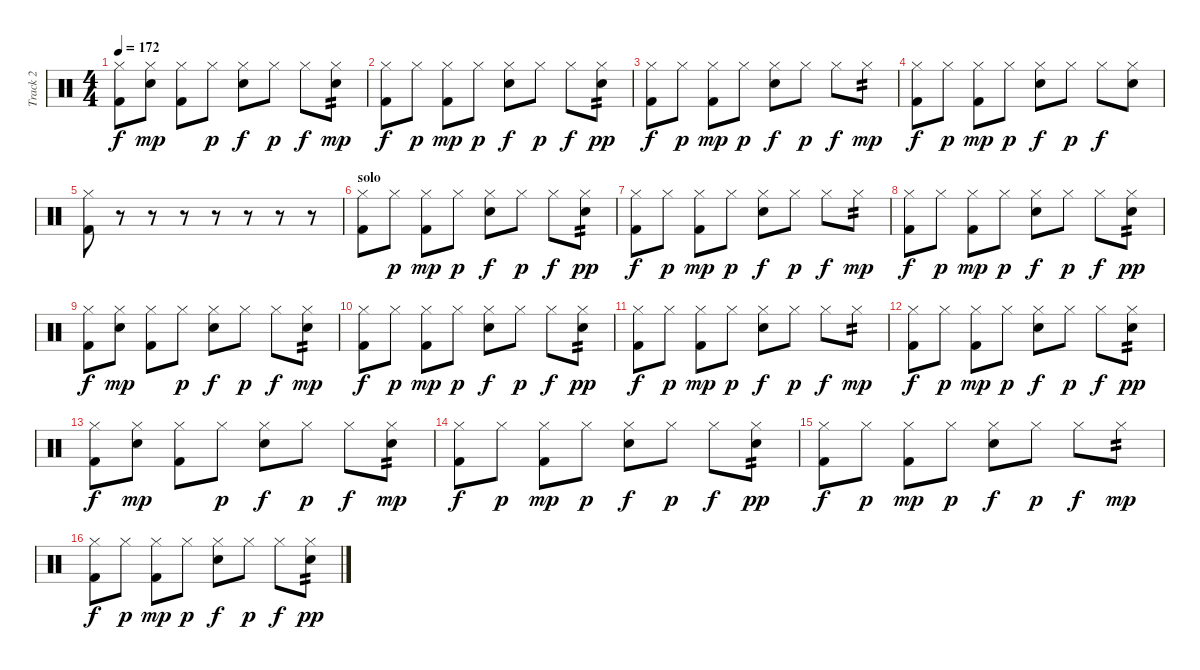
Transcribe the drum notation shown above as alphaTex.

\track ("Track 2" "Track 2") {instrument percussion}
\staff {score}
\articulation defaults
\ts (4 4)
\tempo 172
\clef neutral
\ks c
("Hi-Hat (closed)" "Kick (hit) 2").8{dy f} ("Hi-Hat (closed)" "Snare (hit) 2").8{dy mp} ("Hi-Hat (closed)" "Kick (hit) 2").8 "Hi-Hat (closed)".8{dy p} ("Hi-Hat (closed)" "Snare (hit) 2").8{dy f} "Hi-Hat (closed)".8{dy p} "Hi-Hat (closed)".8{dy f} ("Hi-Hat (closed)" "Snare (hit) 2").8{tp 2 dy mp} |
("Hi-Hat (closed)" "Kick (hit) 2").8{dy f} "Hi-Hat (closed)".8{dy p} ("Hi-Hat (closed)" "Kick (hit) 2").8{dy mp} "Hi-Hat (closed)".8{dy p} ("Hi-Hat (closed)" "Snare (hit) 2").8{dy f} "Hi-Hat (closed)".8{dy p} "Hi-Hat (closed)".8{dy f} ("Hi-Hat (closed)" "Snare (hit) 2").8{tp 2 dy pp} |
("Hi-Hat (closed)" "Kick (hit) 2").8{dy f} "Hi-Hat (closed)".8{dy p} ("Hi-Hat (closed)" "Kick (hit) 2").8{dy mp} "Hi-Hat (closed)".8{dy p} ("Hi-Hat (closed)" "Snare (hit) 2").8{dy f} "Hi-Hat (closed)".8{dy p} "Hi-Hat (closed)".8{dy f} "Hi-Hat (closed)".8{tp 2 dy mp} |
("Hi-Hat (closed)" "Kick (hit) 2").8{dy f} "Hi-Hat (closed)".8{dy p} ("Hi-Hat (closed)" "Kick (hit) 2").8{dy mp} "Hi-Hat (closed)".8{dy p} ("Hi-Hat (closed)" "Snare (hit) 2").8{dy f} "Hi-Hat (closed)".8{dy p} "Hi-Hat (closed)".8{dy f} ("Hi-Hat (closed)" "Snare (hit) 2").8 |
("Hi-Hat (closed)" "Kick (hit) 2").8 r.8 r.8 r.8 r.8 r.8 r.8 r.8 |
\section ("" "solo")
("Hi-Hat (closed)" "Kick (hit) 2").8 "Hi-Hat (closed)".8{dy p} ("Hi-Hat (closed)" "Kick (hit) 2").8{dy mp} "Hi-Hat (closed)".8{dy p} ("Hi-Hat (closed)" "Snare (hit) 2").8{dy f} "Hi-Hat (closed)".8{dy p} "Hi-Hat (closed)".8{dy f} ("Hi-Hat (closed)" "Snare (hit) 2").8{tp 2 dy pp} |
("Hi-Hat (closed)" "Kick (hit) 2").8{dy f} "Hi-Hat (closed)".8{dy p} ("Hi-Hat (closed)" "Kick (hit) 2").8{dy mp} "Hi-Hat (closed)".8{dy p} ("Hi-Hat (closed)" "Snare (hit) 2").8{dy f} "Hi-Hat (closed)".8{dy p} "Hi-Hat (closed)".8{dy f} "Hi-Hat (closed)".8{tp 2 dy mp} |
("Hi-Hat (closed)" "Kick (hit) 2").8{dy f} "Hi-Hat (closed)".8{dy p} ("Hi-Hat (closed)" "Kick (hit) 2").8{dy mp} "Hi-Hat (closed)".8{dy p} ("Hi-Hat (closed)" "Snare (hit) 2").8{dy f} "Hi-Hat (closed)".8{dy p} "Hi-Hat (closed)".8{dy f} ("Hi-Hat (closed)" "Snare (hit) 2").8{tp 2 dy pp} |
("Hi-Hat (closed)" "Kick (hit) 2").8{dy f} ("Hi-Hat (closed)" "Snare (hit) 2").8{dy mp} ("Hi-Hat (closed)" "Kick (hit) 2").8 "Hi-Hat (closed)".8{dy p} ("Hi-Hat (closed)" "Snare (hit) 2").8{dy f} "Hi-Hat (closed)".8{dy p} "Hi-Hat (closed)".8{dy f} ("Hi-Hat (closed)" "Snare (hit) 2").8{tp 2 dy mp} |
("Hi-Hat (closed)" "Kick (hit) 2").8{dy f} "Hi-Hat (closed)".8{dy p} ("Hi-Hat (closed)" "Kick (hit) 2").8{dy mp} "Hi-Hat (closed)".8{dy p} ("Hi-Hat (closed)" "Snare (hit) 2").8{dy f} "Hi-Hat (closed)".8{dy p} "Hi-Hat (closed)".8{dy f} ("Hi-Hat (closed)" "Snare (hit) 2").8{tp 2 dy pp} |
("Hi-Hat (closed)" "Kick (hit) 2").8{dy f} "Hi-Hat (closed)".8{dy p} ("Hi-Hat (closed)" "Kick (hit) 2").8{dy mp} "Hi-Hat (closed)".8{dy p} ("Hi-Hat (closed)" "Snare (hit) 2").8{dy f} "Hi-Hat (closed)".8{dy p} "Hi-Hat (closed)".8{dy f} "Hi-Hat (closed)".8{tp 2 dy mp} |
("Hi-Hat (closed)" "Kick (hit) 2").8{dy f} "Hi-Hat (closed)".8{dy p} ("Hi-Hat (closed)" "Kick (hit) 2").8{dy mp} "Hi-Hat (closed)".8{dy p} ("Hi-Hat (closed)" "Snare (hit) 2").8{dy f} "Hi-Hat (closed)".8{dy p} "Hi-Hat (closed)".8{dy f} ("Hi-Hat (closed)" "Snare (hit) 2").8{tp 2 dy pp} |
("Hi-Hat (closed)" "Kick (hit) 2").8{dy f} ("Hi-Hat (closed)" "Snare (hit) 2").8{dy mp} ("Hi-Hat (closed)" "Kick (hit) 2").8 "Hi-Hat (closed)".8{dy p} ("Hi-Hat (closed)" "Snare (hit) 2").8{dy f} "Hi-Hat (closed)".8{dy p} "Hi-Hat (closed)".8{dy f} ("Hi-Hat (closed)" "Snare (hit) 2").8{tp 2 dy mp} |
("Hi-Hat (closed)" "Kick (hit) 2").8{dy f} "Hi-Hat (closed)".8{dy p} ("Hi-Hat (closed)" "Kick (hit) 2").8{dy mp} "Hi-Hat (closed)".8{dy p} ("Hi-Hat (closed)" "Snare (hit) 2").8{dy f} "Hi-Hat (closed)".8{dy p} "Hi-Hat (closed)".8{dy f} ("Hi-Hat (closed)" "Snare (hit) 2").8{tp 2 dy pp} |
("Hi-Hat (closed)" "Kick (hit) 2").8{dy f} "Hi-Hat (closed)".8{dy p} ("Hi-Hat (closed)" "Kick (hit) 2").8{dy mp} "Hi-Hat (closed)".8{dy p} ("Hi-Hat (closed)" "Snare (hit) 2").8{dy f} "Hi-Hat (closed)".8{dy p} "Hi-Hat (closed)".8{dy f} "Hi-Hat (closed)".8{tp 2 dy mp} |
("Hi-Hat (closed)" "Kick (hit) 2").8{dy f} "Hi-Hat (closed)".8{dy p} ("Hi-Hat (closed)" "Kick (hit) 2").8{dy mp} "Hi-Hat (closed)".8{dy p} ("Hi-Hat (closed)" "Snare (hit) 2").8{dy f} "Hi-Hat (closed)".8{dy p} "Hi-Hat (closed)".8{dy f} ("Hi-Hat (closed)" "Snare (hit) 2").8{tp 2 dy pp}
